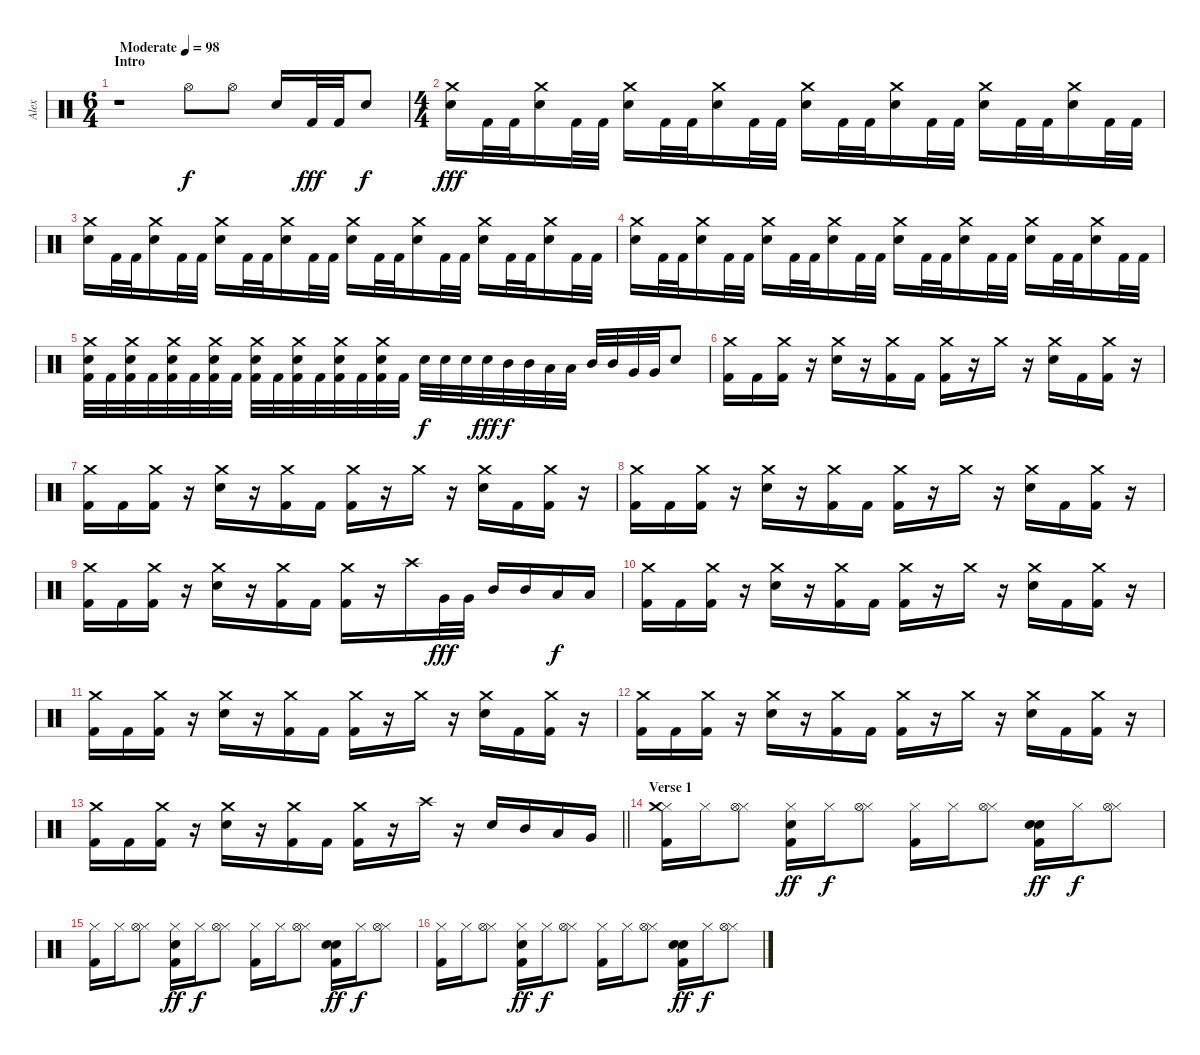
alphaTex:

\track ("Alex" "Alex") {instrument percussion}
\staff {score}
\articulation defaults
\ts (6 4)
\section ("" "Intro")
\tempo (98 "Moderate")
\clef neutral
\ks c
r.1{dy f} "Hi-Hat (open)".8 "Hi-Hat (open)".8 "Snare (hit) 2".16 "Kick (hit) 2".32{dy fff} "Kick (hit) 2".32 "Snare (hit) 2".8{dy f} |
\ts (4 4)
("Crash medium (hit)" "Snare (hit) 2").16{dy fff} "Kick (hit) 2".32 "Kick (hit) 2".32 ("Crash medium (hit)" "Snare (hit) 2").16 "Kick (hit) 2".32 "Kick (hit) 2".32 ("Crash medium (hit)" "Snare (hit) 2").16 "Kick (hit) 2".32 "Kick (hit) 2".32 ("Crash medium (hit)" "Snare (hit) 2").16 "Kick (hit) 2".32 "Kick (hit) 2".32 ("Crash medium (hit)" "Snare (hit) 2").16 "Kick (hit) 2".32 "Kick (hit) 2".32 ("Crash medium (hit)" "Snare (hit) 2").16 "Kick (hit) 2".32 "Kick (hit) 2".32 ("Crash medium (hit)" "Snare (hit) 2").16 "Kick (hit) 2".32 "Kick (hit) 2".32 ("Crash medium (hit)" "Snare (hit) 2").16 "Kick (hit) 2".32 "Kick (hit) 2".32 |
("Crash medium (hit)" "Snare (hit) 2").16 "Kick (hit) 2".32 "Kick (hit) 2".32 ("Crash medium (hit)" "Snare (hit) 2").16 "Kick (hit) 2".32 "Kick (hit) 2".32 ("Crash medium (hit)" "Snare (hit) 2").16 "Kick (hit) 2".32 "Kick (hit) 2".32 ("Crash medium (hit)" "Snare (hit) 2").16 "Kick (hit) 2".32 "Kick (hit) 2".32 ("Crash medium (hit)" "Snare (hit) 2").16 "Kick (hit) 2".32 "Kick (hit) 2".32 ("Crash medium (hit)" "Snare (hit) 2").16 "Kick (hit) 2".32 "Kick (hit) 2".32 ("Crash medium (hit)" "Snare (hit) 2").16 "Kick (hit) 2".32 "Kick (hit) 2".32 ("Crash medium (hit)" "Snare (hit) 2").16 "Kick (hit) 2".32 "Kick (hit) 2".32 |
("Crash medium (hit)" "Snare (hit) 2").16 "Kick (hit) 2".32 "Kick (hit) 2".32 ("Crash medium (hit)" "Snare (hit) 2").16 "Kick (hit) 2".32 "Kick (hit) 2".32 ("Crash medium (hit)" "Snare (hit) 2").16 "Kick (hit) 2".32 "Kick (hit) 2".32 ("Crash medium (hit)" "Snare (hit) 2").16 "Kick (hit) 2".32 "Kick (hit) 2".32 ("Crash medium (hit)" "Snare (hit) 2").16 "Kick (hit) 2".32 "Kick (hit) 2".32 ("Crash medium (hit)" "Snare (hit) 2").16 "Kick (hit) 2".32 "Kick (hit) 2".32 ("Crash medium (hit)" "Snare (hit) 2").16 "Kick (hit) 2".32 "Kick (hit) 2".32 ("Crash medium (hit)" "Snare (hit) 2").16 "Kick (hit) 2".32 "Kick (hit) 2".32 |
("Crash medium (hit)" "Snare (hit) 2" "Kick (hit) 2").32 "Kick (hit) 2".32 ("Crash medium (hit)" "Snare (hit) 2" "Kick (hit) 2").32 "Kick (hit) 2".32 ("Crash medium (hit)" "Snare (hit) 2" "Kick (hit) 2").32 "Kick (hit) 2".32 ("Crash medium (hit)" "Snare (hit) 2" "Kick (hit) 2").32 "Kick (hit) 2".32 ("Crash medium (hit)" "Snare (hit) 2" "Kick (hit) 2").32 "Kick (hit) 2".32 ("Crash medium (hit)" "Snare (hit) 2" "Kick (hit) 2").32 "Kick (hit) 2".32 ("Crash medium (hit)" "Snare (hit) 2" "Kick (hit) 2").32 "Kick (hit) 2".32 ("Crash medium (hit)" "Snare (hit) 2" "Kick (hit) 2").32 "Kick (hit) 2".32 "Snare (hit) 2".32{dy f} "Snare (hit) 2".32 "Snare (hit) 2".32 "Snare (hit) 2".32{dy fff} "Mid Tom (hit)".32{dy f} "Mid Tom (hit)".32 "Low Tom (hit)".32 "Low Tom (hit)".32 "Mid Tom (hit)".32 "Mid Tom (hit)".32 "Very Low Tom (hit)".32 "Very Low Tom (hit)".32 "Snare (hit) 2".8 |
("Crash medium (hit)" "Kick (hit) 2").16 "Kick (hit) 2".16 ("Crash medium (hit)" "Kick (hit) 2").16 r.16 ("Crash medium (hit)" "Snare (hit) 2").16 r.16 ("Crash medium (hit)" "Kick (hit) 2").16 "Kick (hit) 2".16 ("Crash medium (hit)" "Kick (hit) 2").16 r.16 "Crash medium (hit)".16 r.16 ("Crash medium (hit)" "Snare (hit) 2").16 "Kick (hit) 2".16 ("Crash medium (hit)" "Kick (hit) 2").16 r.16 |
("Crash medium (hit)" "Kick (hit) 2").16 "Kick (hit) 2".16 ("Crash medium (hit)" "Kick (hit) 2").16 r.16 ("Crash medium (hit)" "Snare (hit) 2").16 r.16 ("Crash medium (hit)" "Kick (hit) 2").16 "Kick (hit) 2".16 ("Crash medium (hit)" "Kick (hit) 2").16 r.16 "Crash medium (hit)".16 r.16 ("Crash medium (hit)" "Snare (hit) 2").16 "Kick (hit) 2".16 ("Crash medium (hit)" "Kick (hit) 2").16 r.16 |
("Crash medium (hit)" "Kick (hit) 2").16 "Kick (hit) 2".16 ("Crash medium (hit)" "Kick (hit) 2").16 r.16 ("Crash medium (hit)" "Snare (hit) 2").16 r.16 ("Crash medium (hit)" "Kick (hit) 2").16 "Kick (hit) 2".16 ("Crash medium (hit)" "Kick (hit) 2").16 r.16 "Crash medium (hit)".16 r.16 ("Crash medium (hit)" "Snare (hit) 2").16 "Kick (hit) 2".16 ("Crash medium (hit)" "Kick (hit) 2").16 r.16 |
("Crash medium (hit)" "Kick (hit) 2").16 "Kick (hit) 2".16 ("Crash medium (hit)" "Kick (hit) 2").16 r.16 ("Crash medium (hit)" "Snare (hit) 2").16 r.16 ("Crash medium (hit)" "Kick (hit) 2").16 "Kick (hit) 2".16 ("Crash medium (hit)" "Kick (hit) 2").16 r.16 "Crash high (hit)".16 "Very Low Tom (hit)".32{dy fff} "Very Low Tom (hit)".32 "Mid Tom (hit)".16 "Mid Tom (hit)".16 "Low Tom (hit)".16{dy f} "Low Tom (hit)".16 |
("Crash medium (hit)" "Kick (hit) 2").16 "Kick (hit) 2".16 ("Crash medium (hit)" "Kick (hit) 2").16 r.16 ("Crash medium (hit)" "Snare (hit) 2").16 r.16 ("Crash medium (hit)" "Kick (hit) 2").16 "Kick (hit) 2".16 ("Crash medium (hit)" "Kick (hit) 2").16 r.16 "Crash medium (hit)".16 r.16 ("Crash medium (hit)" "Snare (hit) 2").16 "Kick (hit) 2".16 ("Crash medium (hit)" "Kick (hit) 2").16 r.16 |
("Crash medium (hit)" "Kick (hit) 2").16 "Kick (hit) 2".16 ("Crash medium (hit)" "Kick (hit) 2").16 r.16 ("Crash medium (hit)" "Snare (hit) 2").16 r.16 ("Crash medium (hit)" "Kick (hit) 2").16 "Kick (hit) 2".16 ("Crash medium (hit)" "Kick (hit) 2").16 r.16 "Crash medium (hit)".16 r.16 ("Crash medium (hit)" "Snare (hit) 2").16 "Kick (hit) 2".16 ("Crash medium (hit)" "Kick (hit) 2").16 r.16 |
("Crash medium (hit)" "Kick (hit) 2").16 "Kick (hit) 2".16 ("Crash medium (hit)" "Kick (hit) 2").16 r.16 ("Crash medium (hit)" "Snare (hit) 2").16 r.16 ("Crash medium (hit)" "Kick (hit) 2").16 "Kick (hit) 2".16 ("Crash medium (hit)" "Kick (hit) 2").16 r.16 "Crash medium (hit)".16 r.16 ("Crash medium (hit)" "Snare (hit) 2").16 "Kick (hit) 2".16 ("Crash medium (hit)" "Kick (hit) 2").16 r.16 |
\barLineRight lightlight
("Crash medium (hit)" "Kick (hit) 2").16 "Kick (hit) 2".16 ("Crash medium (hit)" "Kick (hit) 2").16 r.16 ("Crash medium (hit)" "Snare (hit) 2").16 r.16 ("Crash medium (hit)" "Kick (hit) 2").16 "Kick (hit) 2".16 ("Crash medium (hit)" "Kick (hit) 2").16 r.16 "Crash high (hit)".16 r.16 "Snare (hit) 2".16 "Mid Tom (hit)".16 "Low Tom (hit)".16 "Very Low Tom (hit)".16 |
\section ("" "Verse 1")
("Hi-Hat (closed)" "Crash medium (hit)" "Kick (hit) 2").16 "Hi-Hat (closed)".16 ("Hi-Hat (closed)" "Hi-Hat (open)").8 ("Hi-Hat (closed)" "Snare (hit) 2" "Kick (hit) 2").16{dy ff} "Hi-Hat (closed)".16{dy f} ("Hi-Hat (closed)" "Hi-Hat (open)").8 ("Hi-Hat (closed)" "Kick (hit) 2").16 "Hi-Hat (closed)".16 ("Hi-Hat (closed)" "Hi-Hat (open)").8 ("Snare (hit)" "Snare (hit) 2" "Kick (hit) 2").16{dy ff} "Hi-Hat (closed)".16{dy f} ("Hi-Hat (closed)" "Hi-Hat (open)").8 |
("Hi-Hat (closed)" "Kick (hit) 2").16 "Hi-Hat (closed)".16 ("Hi-Hat (closed)" "Hi-Hat (open)").8 ("Hi-Hat (closed)" "Snare (hit) 2" "Kick (hit) 2").16{dy ff} "Hi-Hat (closed)".16{dy f} ("Hi-Hat (closed)" "Hi-Hat (open)").8 ("Hi-Hat (closed)" "Kick (hit) 2").16 "Hi-Hat (closed)".16 ("Hi-Hat (closed)" "Hi-Hat (open)").8 ("Snare (hit)" "Snare (hit) 2" "Kick (hit) 2").16{dy ff} "Hi-Hat (closed)".16{dy f} ("Hi-Hat (closed)" "Hi-Hat (open)").8 |
("Hi-Hat (closed)" "Kick (hit) 2").16 "Hi-Hat (closed)".16 ("Hi-Hat (closed)" "Hi-Hat (open)").8 ("Hi-Hat (closed)" "Snare (hit) 2" "Kick (hit) 2").16{dy ff} "Hi-Hat (closed)".16{dy f} ("Hi-Hat (closed)" "Hi-Hat (open)").8 ("Hi-Hat (closed)" "Kick (hit) 2").16 "Hi-Hat (closed)".16 ("Hi-Hat (closed)" "Hi-Hat (open)").8 ("Snare (hit)" "Snare (hit) 2" "Kick (hit) 2").16{dy ff} "Hi-Hat (closed)".16{dy f} ("Hi-Hat (closed)" "Hi-Hat (open)").8
